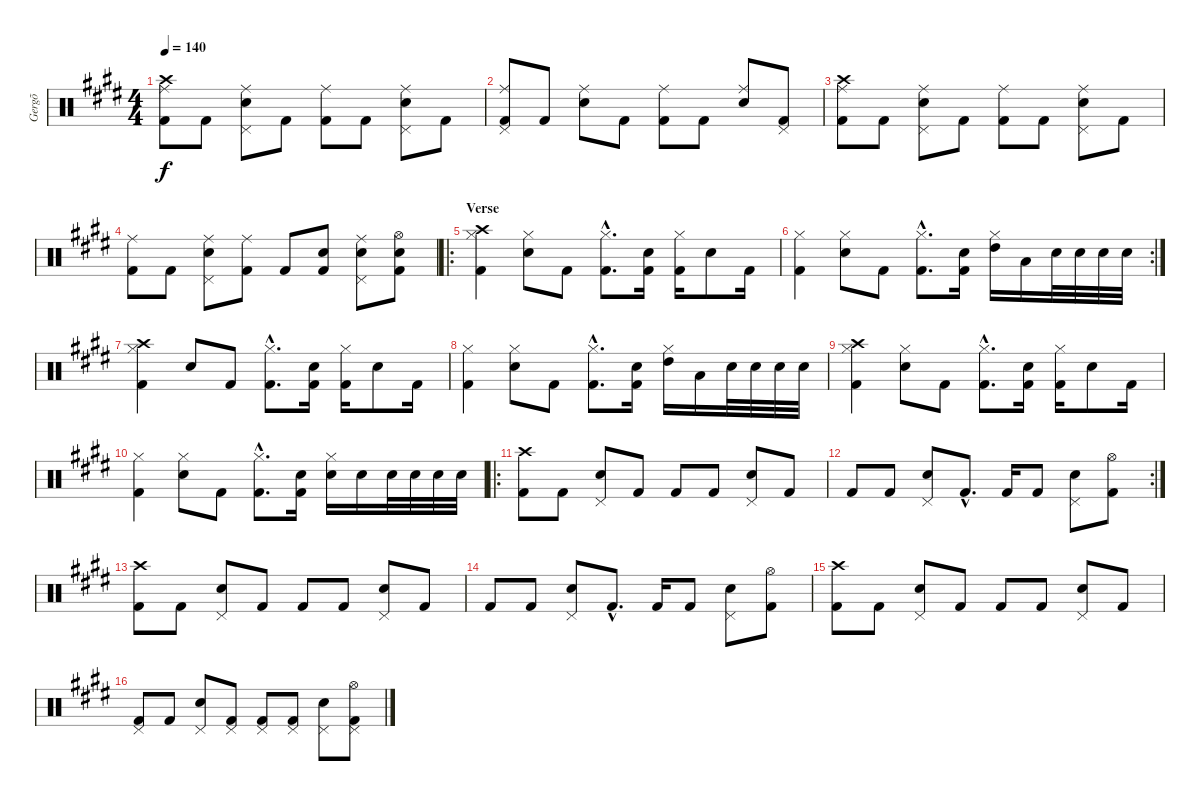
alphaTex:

\track ("Gergõ" "Gergõ") {instrument percussion}
\staff {score}
\articulation defaults
\ts (4 4)
\tempo 140
\clef neutral
\ks e
("Ride (middle)" "Crash high (hit)" "Kick (hit) 2").8{dy f} "Kick (hit) 2".8 ("Ride (middle)" "Pedal Hi-Hat (hit)" "Electric Snare (hit)").8 "Kick (hit) 2".8 ("Ride (middle)" "Kick (hit) 2").8 "Kick (hit) 2".8 ("Ride (middle)" "Pedal Hi-Hat (hit)" "Electric Snare (hit)").8 "Kick (hit) 2".8 |
("Ride (middle)" "Pedal Hi-Hat (hit)" "Kick (hit) 2").8 "Kick (hit) 2".8 ("Ride (middle)" "Electric Snare (hit)").8 "Kick (hit) 2".8 ("Ride (middle)" "Kick (hit) 2").8 "Kick (hit) 2".8 ("Ride (middle)" "Electric Snare (hit)").8 ("Pedal Hi-Hat (hit)" "Kick (hit) 2").8 |
("Ride (middle)" "Crash high (hit)" "Kick (hit) 2").8 "Kick (hit) 2".8 ("Ride (middle)" "Pedal Hi-Hat (hit)" "Electric Snare (hit)").8 "Kick (hit) 2".8 ("Ride (middle)" "Kick (hit) 2").8 "Kick (hit) 2".8 ("Ride (middle)" "Pedal Hi-Hat (hit)" "Electric Snare (hit)").8 "Kick (hit) 2".8 |
("Ride (middle)" "Kick (hit) 2").8 "Kick (hit) 2".8 ("Ride (middle)" "Pedal Hi-Hat (hit)" "Electric Snare (hit)").8 ("Ride (middle)" "Kick (hit) 2").8 "Kick (hit) 2".8 ("Electric Snare (hit)" "Kick (hit) 2").8 ("Ride (middle)" "Pedal Hi-Hat (hit)" "Electric Snare (hit)").8 ("Hi-Hat (open)" "Electric Snare (hit)" "Kick (hit) 2").8 |
\ro
\section ("" "Verse")
("Hi-Hat (closed)" "Crash high (hit)" "Kick (hit) 2").4 ("Hi-Hat (closed)" "Electric Snare (hit)").8 "Kick (hit) 2".8 ("Hi-Hat (closed)"{hac} "Kick (hit) 2"{hac}).8{d} ("Electric Snare (hit)" "Kick (hit) 2").16 ("Hi-Hat (closed)" "Kick (hit) 2").16 "Electric Snare (hit)".8 "Kick (hit) 2".16 |
\rc 2
("Hi-Hat (closed)" "Kick (hit) 2").4 ("Hi-Hat (closed)" "Electric Snare (hit)").8 "Kick (hit) 2".8 ("Hi-Hat (closed)"{hac} "Kick (hit) 2"{hac}).8{d} ("Electric Snare (hit)" "Kick (hit) 2").16 ("Hi-Hat (closed)" "High Tom (hit)").16 "Low Tom (hit)".16 "Electric Snare (hit)".32 "Electric Snare (hit)".32 "Electric Snare (hit)".32 "Electric Snare (hit)".32 |
("Hi-Hat (closed)" "Crash high (hit)" "Kick (hit) 2").4 "Electric Snare (hit)".8 "Kick (hit) 2".8 ("Hi-Hat (closed)"{hac} "Kick (hit) 2"{hac}).8{d} ("Electric Snare (hit)" "Kick (hit) 2").16 ("Hi-Hat (closed)" "Kick (hit) 2").16 "Electric Snare (hit)".8 "Kick (hit) 2".16 |
("Hi-Hat (closed)" "Kick (hit) 2").4 ("Hi-Hat (closed)" "Electric Snare (hit)").8 "Kick (hit) 2".8 ("Hi-Hat (closed)"{hac} "Kick (hit) 2"{hac}).8{d} ("Electric Snare (hit)" "Kick (hit) 2").16 ("Hi-Hat (closed)" "High Tom (hit)").16 "Low Tom (hit)".16 "Electric Snare (hit)".32 "Electric Snare (hit)".32 "Electric Snare (hit)".32 "Electric Snare (hit)".32 |
("Hi-Hat (closed)" "Crash high (hit)" "Kick (hit) 2").4 ("Hi-Hat (closed)" "Electric Snare (hit)").8 "Kick (hit) 2".8 ("Hi-Hat (closed)"{hac} "Kick (hit) 2"{hac}).8{d} ("Electric Snare (hit)" "Kick (hit) 2").16 ("Hi-Hat (closed)" "Kick (hit) 2").16 "Electric Snare (hit)".8 "Kick (hit) 2".16 |
("Hi-Hat (closed)" "Kick (hit) 2").4 ("Hi-Hat (closed)" "Electric Snare (hit)").8 "Kick (hit) 2".8 ("Hi-Hat (closed)"{hac} "Kick (hit) 2"{hac}).8{d} ("Electric Snare (hit)" "Kick (hit) 2").16 ("Hi-Hat (closed)" "Electric Snare (hit)").16 "Electric Snare (hit)".16 "Electric Snare (hit)".32 "Electric Snare (hit)".32 "Electric Snare (hit)".32 "Electric Snare (hit)".32 |
\ro
("Crash high (hit)" "Kick (hit) 2").8 "Kick (hit) 2".8 ("Pedal Hi-Hat (hit)" "Electric Snare (hit)").8 "Kick (hit) 2".8 "Kick (hit) 2".8 "Kick (hit) 2".8 ("Pedal Hi-Hat (hit)" "Electric Snare (hit)").8 "Kick (hit) 2".8 |
\rc 2 "Kick (hit) 2".8 "Kick (hit) 2".8
("Pedal Hi-Hat (hit)" "Electric Snare (hit)").8 "Kick (hit) 2"{hac}.8{d} "Kick (hit) 2".16 "Kick (hit) 2".8 ("Pedal Hi-Hat (hit)" "Electric Snare (hit)").8 ("Hi-Hat (open)" "Kick (hit) 2").8 |
("Crash high (hit)" "Kick (hit) 2").8 "Kick (hit) 2".8 ("Pedal Hi-Hat (hit)" "Electric Snare (hit)").8 "Kick (hit) 2".8 "Kick (hit) 2".8 "Kick (hit) 2".8 ("Pedal Hi-Hat (hit)" "Electric Snare (hit)").8 "Kick (hit) 2".8 |
"Kick (hit) 2".8 "Kick (hit) 2".8 ("Pedal Hi-Hat (hit)" "Electric Snare (hit)").8 "Kick (hit) 2"{hac}.8{d} "Kick (hit) 2".16 "Kick (hit) 2".8 ("Pedal Hi-Hat (hit)" "Electric Snare (hit)").8 ("Hi-Hat (open)" "Kick (hit) 2").8 |
("Crash high (hit)" "Kick (hit) 2").8 "Kick (hit) 2".8 ("Pedal Hi-Hat (hit)" "Electric Snare (hit)").8 "Kick (hit) 2".8 "Kick (hit) 2".8 "Kick (hit) 2".8 ("Pedal Hi-Hat (hit)" "Electric Snare (hit)").8 "Kick (hit) 2".8 |
("Pedal Hi-Hat (hit)" "Kick (hit) 2").8 "Kick (hit) 2".8 ("Pedal Hi-Hat (hit)" "Electric Snare (hit)").8 ("Pedal Hi-Hat (hit)" "Kick (hit) 2").8 ("Pedal Hi-Hat (hit)" "Kick (hit) 2").8 ("Pedal Hi-Hat (hit)" "Kick (hit) 2").8 ("Pedal Hi-Hat (hit)" "Electric Snare (hit)").8 ("Hi-Hat (open)" "Pedal Hi-Hat (hit)" "Kick (hit) 2").8
